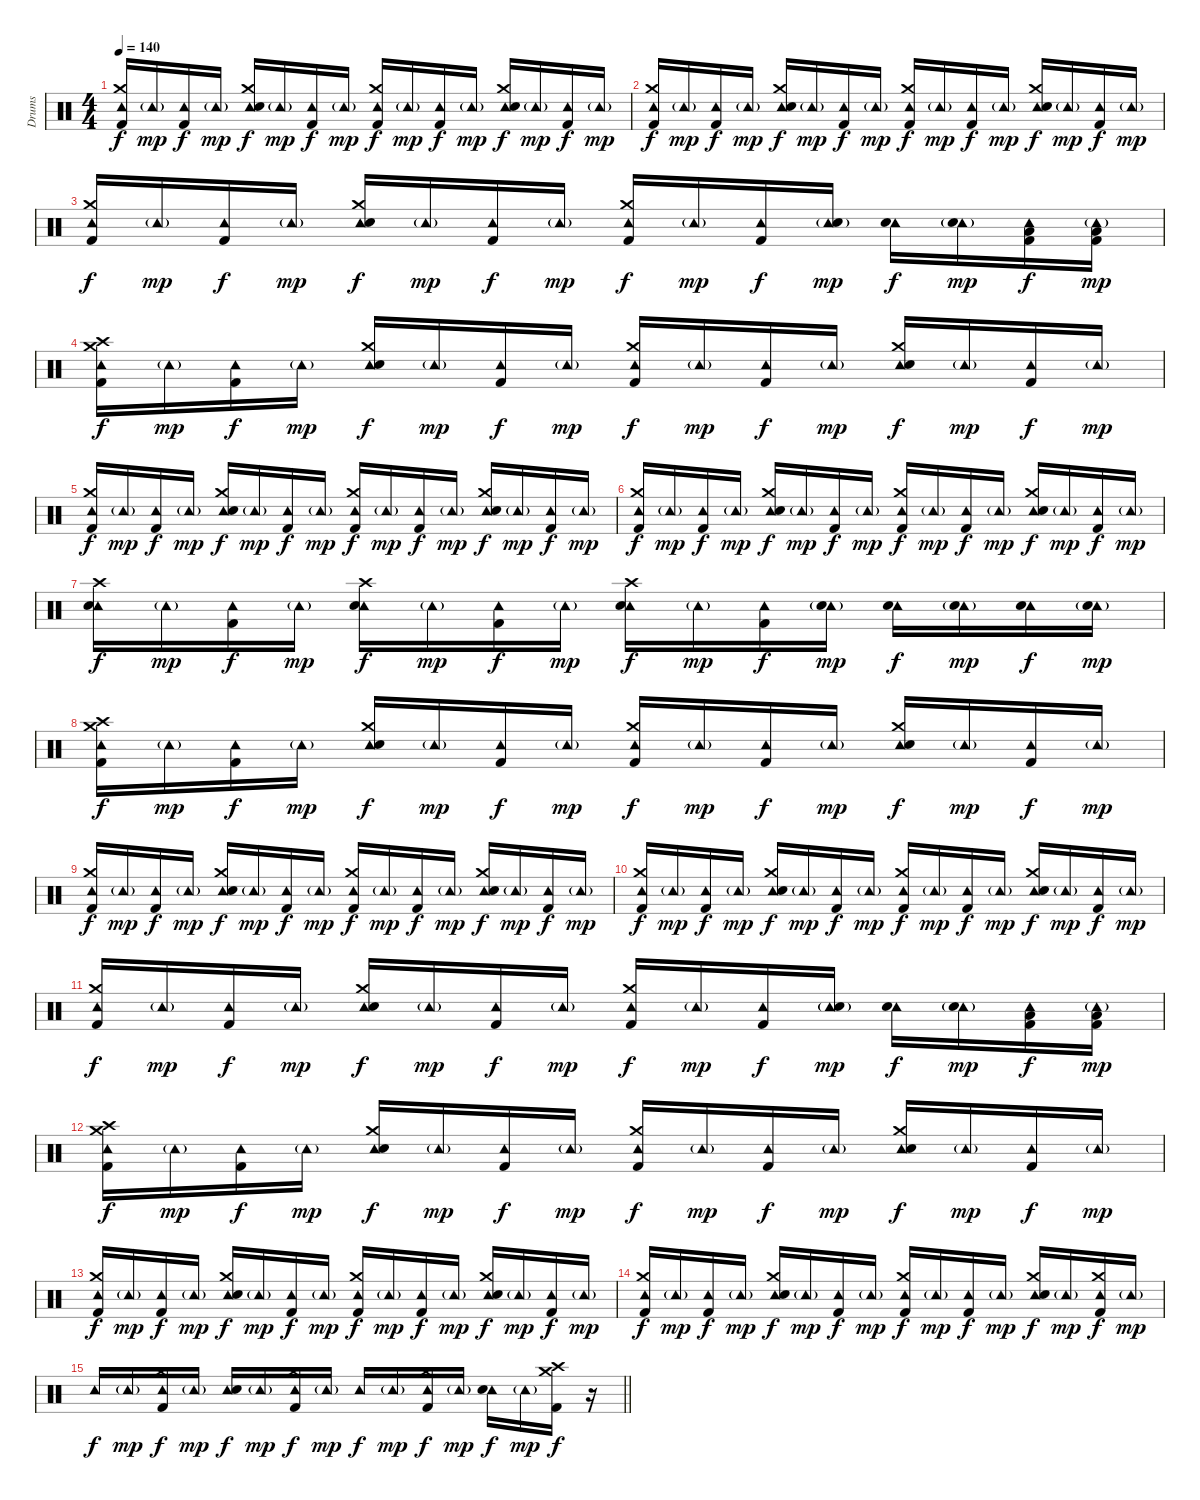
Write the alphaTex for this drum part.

\track ("Drums" "Drums") {instrument percussion}
\staff {score}
\articulation defaults
\ts (4 4)
\tempo 140
\clef neutral
\ks c
("Tambourine (hit)" "Crash medium (hit)" "Kick (hit) 2").16{dy f} "Tambourine (hit)"{g}.16{dy mp} ("Tambourine (hit)" "Kick (hit) 2").16{dy f} "Tambourine (hit)"{g}.16{dy mp} ("Tambourine (hit)" "Crash medium (hit)" "Electric Snare (hit)").16{dy f} "Tambourine (hit)"{g}.16{dy mp} ("Tambourine (hit)" "Kick (hit) 2").16{dy f} "Tambourine (hit)"{g}.16{dy mp} ("Tambourine (hit)" "Crash medium (hit)" "Kick (hit) 2").16{dy f} "Tambourine (hit)"{g}.16{dy mp} ("Tambourine (hit)" "Kick (hit) 2").16{dy f} "Tambourine (hit)"{g}.16{dy mp} ("Tambourine (hit)" "Crash medium (hit)" "Electric Snare (hit)").16{dy f} "Tambourine (hit)"{g}.16{dy mp} ("Tambourine (hit)" "Kick (hit) 2").16{dy f} "Tambourine (hit)"{g}.16{dy mp} |
("Tambourine (hit)" "Crash medium (hit)" "Kick (hit) 2").16{dy f} "Tambourine (hit)"{g}.16{dy mp} ("Tambourine (hit)" "Kick (hit) 2").16{dy f} "Tambourine (hit)"{g}.16{dy mp} ("Tambourine (hit)" "Crash medium (hit)" "Electric Snare (hit)").16{dy f} "Tambourine (hit)"{g}.16{dy mp} ("Tambourine (hit)" "Kick (hit) 2").16{dy f} "Tambourine (hit)"{g}.16{dy mp} ("Tambourine (hit)" "Crash medium (hit)" "Kick (hit) 2").16{dy f} "Tambourine (hit)"{g}.16{dy mp} ("Tambourine (hit)" "Kick (hit) 2").16{dy f} "Tambourine (hit)"{g}.16{dy mp} ("Tambourine (hit)" "Crash medium (hit)" "Electric Snare (hit)").16{dy f} "Tambourine (hit)"{g}.16{dy mp} ("Tambourine (hit)" "Kick (hit) 2").16{dy f} "Tambourine (hit)"{g}.16{dy mp} |
("Tambourine (hit)" "Crash medium (hit)" "Kick (hit) 2").16{dy f} "Tambourine (hit)"{g}.16{dy mp} ("Tambourine (hit)" "Kick (hit) 2").16{dy f} "Tambourine (hit)"{g}.16{dy mp} ("Tambourine (hit)" "Crash medium (hit)" "Electric Snare (hit)").16{dy f} "Tambourine (hit)"{g}.16{dy mp} ("Tambourine (hit)" "Kick (hit) 2").16{dy f} "Tambourine (hit)"{g}.16{dy mp} ("Tambourine (hit)" "Crash medium (hit)" "Kick (hit) 2").16{dy f} "Tambourine (hit)"{g}.16{dy mp} ("Tambourine (hit)" "Kick (hit) 2").16{dy f} ("Tambourine (hit)"{g} "Electric Snare (hit)").16{dy mp} ("Tambourine (hit)" "Electric Snare (hit)").16{dy f} ("Tambourine (hit)"{g} "Electric Snare (hit)").16{dy mp} ("Tambourine (hit)" "Low Tom (hit)" "Kick (hit) 2").16{dy f} ("Tambourine (hit)"{g} "Low Tom (hit)" "Kick (hit) 2").16{dy mp} |
("Tambourine (hit)" "Crash high (hit)" "Crash medium (hit)" "Kick (hit) 2").16{dy f} "Tambourine (hit)"{g}.16{dy mp} ("Tambourine (hit)" "Kick (hit) 2").16{dy f} "Tambourine (hit)"{g}.16{dy mp} ("Tambourine (hit)" "Crash medium (hit)" "Electric Snare (hit)").16{dy f} "Tambourine (hit)"{g}.16{dy mp} ("Tambourine (hit)" "Kick (hit) 2").16{dy f} "Tambourine (hit)"{g}.16{dy mp} ("Tambourine (hit)" "Crash medium (hit)" "Kick (hit) 2").16{dy f} "Tambourine (hit)"{g}.16{dy mp} ("Tambourine (hit)" "Kick (hit) 2").16{dy f} "Tambourine (hit)"{g}.16{dy mp} ("Tambourine (hit)" "Crash medium (hit)" "Electric Snare (hit)").16{dy f} "Tambourine (hit)"{g}.16{dy mp} ("Tambourine (hit)" "Kick (hit) 2").16{dy f} "Tambourine (hit)"{g}.16{dy mp} |
("Tambourine (hit)" "Crash medium (hit)" "Kick (hit) 2").16{dy f} "Tambourine (hit)"{g}.16{dy mp} ("Tambourine (hit)" "Kick (hit) 2").16{dy f} "Tambourine (hit)"{g}.16{dy mp} ("Tambourine (hit)" "Crash medium (hit)" "Electric Snare (hit)").16{dy f} "Tambourine (hit)"{g}.16{dy mp} ("Tambourine (hit)" "Kick (hit) 2").16{dy f} "Tambourine (hit)"{g}.16{dy mp} ("Tambourine (hit)" "Crash medium (hit)" "Kick (hit) 2").16{dy f} "Tambourine (hit)"{g}.16{dy mp} ("Tambourine (hit)" "Kick (hit) 2").16{dy f} "Tambourine (hit)"{g}.16{dy mp} ("Tambourine (hit)" "Crash medium (hit)" "Electric Snare (hit)").16{dy f} "Tambourine (hit)"{g}.16{dy mp} ("Tambourine (hit)" "Kick (hit) 2").16{dy f} "Tambourine (hit)"{g}.16{dy mp} |
("Tambourine (hit)" "Crash medium (hit)" "Kick (hit) 2").16{dy f} "Tambourine (hit)"{g}.16{dy mp} ("Tambourine (hit)" "Kick (hit) 2").16{dy f} "Tambourine (hit)"{g}.16{dy mp} ("Tambourine (hit)" "Crash medium (hit)" "Electric Snare (hit)").16{dy f} "Tambourine (hit)"{g}.16{dy mp} ("Tambourine (hit)" "Kick (hit) 2").16{dy f} "Tambourine (hit)"{g}.16{dy mp} ("Tambourine (hit)" "Crash medium (hit)" "Kick (hit) 2").16{dy f} "Tambourine (hit)"{g}.16{dy mp} ("Tambourine (hit)" "Kick (hit) 2").16{dy f} "Tambourine (hit)"{g}.16{dy mp} ("Tambourine (hit)" "Crash medium (hit)" "Electric Snare (hit)").16{dy f} "Tambourine (hit)"{g}.16{dy mp} ("Tambourine (hit)" "Kick (hit) 2").16{dy f} "Tambourine (hit)"{g}.16{dy mp} |
("Tambourine (hit)" "Crash high (hit)" "Electric Snare (hit)").16{dy f} "Tambourine (hit)"{g}.16{dy mp} ("Tambourine (hit)" "Kick (hit) 2").16{dy f} "Tambourine (hit)"{g}.16{dy mp} ("Tambourine (hit)" "Crash high (hit)" "Electric Snare (hit)").16{dy f} "Tambourine (hit)"{g}.16{dy mp} ("Tambourine (hit)" "Kick (hit) 2").16{dy f} "Tambourine (hit)"{g}.16{dy mp} ("Tambourine (hit)" "Crash high (hit)" "Electric Snare (hit)").16{dy f} "Tambourine (hit)"{g}.16{dy mp} ("Tambourine (hit)" "Kick (hit) 2").16{dy f} ("Tambourine (hit)"{g} "Electric Snare (hit)").16{dy mp} ("Tambourine (hit)" "Electric Snare (hit)").16{dy f} ("Tambourine (hit)"{g} "Electric Snare (hit)").16{dy mp} ("Tambourine (hit)" "Electric Snare (hit)").16{dy f} ("Tambourine (hit)"{g} "Electric Snare (hit)").16{dy mp} |
("Tambourine (hit)" "Crash high (hit)" "Crash medium (hit)" "Kick (hit) 2").16{dy f} "Tambourine (hit)"{g}.16{dy mp} ("Tambourine (hit)" "Kick (hit) 2").16{dy f} "Tambourine (hit)"{g}.16{dy mp} ("Tambourine (hit)" "Crash medium (hit)" "Electric Snare (hit)").16{dy f} "Tambourine (hit)"{g}.16{dy mp} ("Tambourine (hit)" "Kick (hit) 2").16{dy f} "Tambourine (hit)"{g}.16{dy mp} ("Tambourine (hit)" "Crash medium (hit)" "Kick (hit) 2").16{dy f} "Tambourine (hit)"{g}.16{dy mp} ("Tambourine (hit)" "Kick (hit) 2").16{dy f} "Tambourine (hit)"{g}.16{dy mp} ("Tambourine (hit)" "Crash medium (hit)" "Electric Snare (hit)").16{dy f} "Tambourine (hit)"{g}.16{dy mp} ("Tambourine (hit)" "Kick (hit) 2").16{dy f} "Tambourine (hit)"{g}.16{dy mp} |
("Tambourine (hit)" "Crash medium (hit)" "Kick (hit) 2").16{dy f} "Tambourine (hit)"{g}.16{dy mp} ("Tambourine (hit)" "Kick (hit) 2").16{dy f} "Tambourine (hit)"{g}.16{dy mp} ("Tambourine (hit)" "Crash medium (hit)" "Electric Snare (hit)").16{dy f} "Tambourine (hit)"{g}.16{dy mp} ("Tambourine (hit)" "Kick (hit) 2").16{dy f} "Tambourine (hit)"{g}.16{dy mp} ("Tambourine (hit)" "Crash medium (hit)" "Kick (hit) 2").16{dy f} "Tambourine (hit)"{g}.16{dy mp} ("Tambourine (hit)" "Kick (hit) 2").16{dy f} "Tambourine (hit)"{g}.16{dy mp} ("Tambourine (hit)" "Crash medium (hit)" "Electric Snare (hit)").16{dy f} "Tambourine (hit)"{g}.16{dy mp} ("Tambourine (hit)" "Kick (hit) 2").16{dy f} "Tambourine (hit)"{g}.16{dy mp} |
("Tambourine (hit)" "Crash medium (hit)" "Kick (hit) 2").16{dy f} "Tambourine (hit)"{g}.16{dy mp} ("Tambourine (hit)" "Kick (hit) 2").16{dy f} "Tambourine (hit)"{g}.16{dy mp} ("Tambourine (hit)" "Crash medium (hit)" "Electric Snare (hit)").16{dy f} "Tambourine (hit)"{g}.16{dy mp} ("Tambourine (hit)" "Kick (hit) 2").16{dy f} "Tambourine (hit)"{g}.16{dy mp} ("Tambourine (hit)" "Crash medium (hit)" "Kick (hit) 2").16{dy f} "Tambourine (hit)"{g}.16{dy mp} ("Tambourine (hit)" "Kick (hit) 2").16{dy f} "Tambourine (hit)"{g}.16{dy mp} ("Tambourine (hit)" "Crash medium (hit)" "Electric Snare (hit)").16{dy f} "Tambourine (hit)"{g}.16{dy mp} ("Tambourine (hit)" "Kick (hit) 2").16{dy f} "Tambourine (hit)"{g}.16{dy mp} |
("Tambourine (hit)" "Crash medium (hit)" "Kick (hit) 2").16{dy f} "Tambourine (hit)"{g}.16{dy mp} ("Tambourine (hit)" "Kick (hit) 2").16{dy f} "Tambourine (hit)"{g}.16{dy mp} ("Tambourine (hit)" "Crash medium (hit)" "Electric Snare (hit)").16{dy f} "Tambourine (hit)"{g}.16{dy mp} ("Tambourine (hit)" "Kick (hit) 2").16{dy f} "Tambourine (hit)"{g}.16{dy mp} ("Tambourine (hit)" "Crash medium (hit)" "Kick (hit) 2").16{dy f} "Tambourine (hit)"{g}.16{dy mp} ("Tambourine (hit)" "Kick (hit) 2").16{dy f} ("Tambourine (hit)"{g} "Electric Snare (hit)").16{dy mp} ("Tambourine (hit)" "Electric Snare (hit)").16{dy f} ("Tambourine (hit)"{g} "Electric Snare (hit)").16{dy mp} ("Tambourine (hit)" "Low Tom (hit)" "Kick (hit) 2").16{dy f} ("Tambourine (hit)"{g} "Low Tom (hit)" "Kick (hit) 2").16{dy mp} |
("Tambourine (hit)" "Crash high (hit)" "Crash medium (hit)" "Kick (hit) 2").16{dy f} "Tambourine (hit)"{g}.16{dy mp} ("Tambourine (hit)" "Kick (hit) 2").16{dy f} "Tambourine (hit)"{g}.16{dy mp} ("Tambourine (hit)" "Crash medium (hit)" "Electric Snare (hit)").16{dy f} "Tambourine (hit)"{g}.16{dy mp} ("Tambourine (hit)" "Kick (hit) 2").16{dy f} "Tambourine (hit)"{g}.16{dy mp} ("Tambourine (hit)" "Crash medium (hit)" "Kick (hit) 2").16{dy f} "Tambourine (hit)"{g}.16{dy mp} ("Tambourine (hit)" "Kick (hit) 2").16{dy f} "Tambourine (hit)"{g}.16{dy mp} ("Tambourine (hit)" "Crash medium (hit)" "Electric Snare (hit)").16{dy f} "Tambourine (hit)"{g}.16{dy mp} ("Tambourine (hit)" "Kick (hit) 2").16{dy f} "Tambourine (hit)"{g}.16{dy mp} |
("Tambourine (hit)" "Crash medium (hit)" "Kick (hit) 2").16{dy f} "Tambourine (hit)"{g}.16{dy mp} ("Tambourine (hit)" "Kick (hit) 2").16{dy f} "Tambourine (hit)"{g}.16{dy mp} ("Tambourine (hit)" "Crash medium (hit)" "Electric Snare (hit)").16{dy f} "Tambourine (hit)"{g}.16{dy mp} ("Tambourine (hit)" "Kick (hit) 2").16{dy f} "Tambourine (hit)"{g}.16{dy mp} ("Tambourine (hit)" "Crash medium (hit)" "Kick (hit) 2").16{dy f} "Tambourine (hit)"{g}.16{dy mp} ("Tambourine (hit)" "Kick (hit) 2").16{dy f} "Tambourine (hit)"{g}.16{dy mp} ("Tambourine (hit)" "Crash medium (hit)" "Electric Snare (hit)").16{dy f} "Tambourine (hit)"{g}.16{dy mp} ("Tambourine (hit)" "Kick (hit) 2").16{dy f} "Tambourine (hit)"{g}.16{dy mp} |
("Tambourine (hit)" "Crash medium (hit)" "Kick (hit) 2").16{dy f} "Tambourine (hit)"{g}.16{dy mp} ("Tambourine (hit)" "Kick (hit) 2").16{dy f} "Tambourine (hit)"{g}.16{dy mp} ("Tambourine (hit)" "Crash medium (hit)" "Electric Snare (hit)").16{dy f} "Tambourine (hit)"{g}.16{dy mp} ("Tambourine (hit)" "Kick (hit) 2").16{dy f} "Tambourine (hit)"{g}.16{dy mp} ("Tambourine (hit)" "Crash medium (hit)" "Kick (hit) 2").16{dy f} "Tambourine (hit)"{g}.16{dy mp} ("Tambourine (hit)" "Kick (hit) 2").16{dy f} "Tambourine (hit)"{g}.16{dy mp} ("Tambourine (hit)" "Crash medium (hit)" "Electric Snare (hit)").16{dy f} "Tambourine (hit)"{g}.16{dy mp} ("Tambourine (hit)" "Crash medium (hit)" "Kick (hit) 2").16{dy f} "Tambourine (hit)"{g}.16{dy mp} |
\barLineRight lightlight "Tambourine (hit)".16{dy f} "Tambourine (hit)"{g}.16{dy mp}
("Tambourine (hit)" "Crash medium (hit)" "Kick (hit) 2").16{dy f} "Tambourine (hit)"{g}.16{dy mp} ("Tambourine (hit)" "Electric Snare (hit)").16{dy f} "Tambourine (hit)"{g}.16{dy mp} ("Tambourine (hit)" "Crash medium (hit)" "Kick (hit) 2").16{dy f} "Tambourine (hit)"{g}.16{dy mp} "Tambourine (hit)".16{dy f} "Tambourine (hit)"{g}.16{dy mp} ("Tambourine (hit)" "Crash medium (hit)" "Kick (hit) 2").16{dy f} "Tambourine (hit)"{g}.16{dy mp} ("Tambourine (hit)" "Electric Snare (hit)").16{dy f} "Tambourine (hit)"{g}.16{dy mp} ("Crash high (hit)" "Crash medium (hit)" "Kick (hit) 2").16{dy f} r.16
